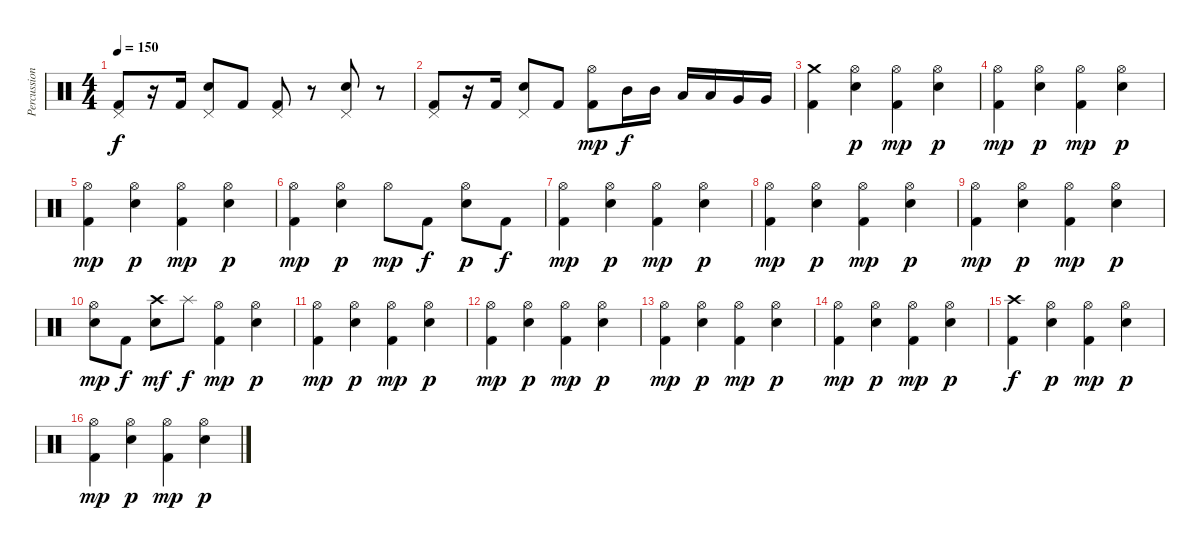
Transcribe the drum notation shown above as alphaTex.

\track ("Percussion" "Percussion") {instrument percussion}
\staff {score}
\articulation defaults
\ts (4 4)
\tempo 150
\clef neutral
\ks c
("Pedal Hi-Hat (hit)" "Kick (hit) 2").8{dy f} r.16 "Kick (hit) 2".16 ("Pedal Hi-Hat (hit)" "Snare (hit) 2").8 "Kick (hit) 2".8 ("Pedal Hi-Hat (hit)" "Kick (hit) 2").8 r.8 ("Pedal Hi-Hat (hit)" "Snare (hit) 2").8 r.8 |
("Pedal Hi-Hat (hit)" "Kick (hit) 2").8 r.16 "Kick (hit) 2".16 ("Pedal Hi-Hat (hit)" "Snare (hit) 2").8 "Kick (hit) 2".8 ("Hi-Hat (open)" "Kick (hit) 2").8{dy mp} "Mid Tom (hit)".16{dy f} "Mid Tom (hit)".16 "Low Tom (hit)".16 "Low Tom (hit)".16 "Very Low Tom (hit)".16 "Very Low Tom (hit)".16 |
("Crash medium (hit)" "Kick (hit) 2").4 ("Hi-Hat (open)" "Snare (hit) 2").4{dy p} ("Hi-Hat (open)" "Kick (hit) 2").4{dy mp} ("Hi-Hat (open)" "Snare (hit) 2").4{dy p} |
("Hi-Hat (open)" "Kick (hit) 2").4{dy mp} ("Hi-Hat (open)" "Snare (hit) 2").4{dy p} ("Hi-Hat (open)" "Kick (hit) 2").4{dy mp} ("Hi-Hat (open)" "Snare (hit) 2").4{dy p} |
("Hi-Hat (open)" "Kick (hit) 2").4{dy mp} ("Hi-Hat (open)" "Snare (hit) 2").4{dy p} ("Hi-Hat (open)" "Kick (hit) 2").4{dy mp} ("Hi-Hat (open)" "Snare (hit) 2").4{dy p} |
("Hi-Hat (open)" "Kick (hit) 2").4{dy mp} ("Hi-Hat (open)" "Snare (hit) 2").4{dy p} "Hi-Hat (open)".8{dy mp} "Kick (hit) 2".8{dy f} ("Hi-Hat (open)" "Snare (hit) 2").8{dy p} "Kick (hit) 2".8{dy f} |
("Hi-Hat (open)" "Kick (hit) 2").4{dy mp} ("Hi-Hat (open)" "Snare (hit) 2").4{dy p} ("Hi-Hat (open)" "Kick (hit) 2").4{dy mp} ("Hi-Hat (open)" "Snare (hit) 2").4{dy p} |
("Hi-Hat (open)" "Kick (hit) 2").4{dy mp} ("Hi-Hat (open)" "Snare (hit) 2").4{dy p} ("Hi-Hat (open)" "Kick (hit) 2").4{dy mp} ("Hi-Hat (open)" "Snare (hit) 2").4{dy p} |
("Hi-Hat (open)" "Kick (hit) 2").4{dy mp} ("Hi-Hat (open)" "Snare (hit) 2").4{dy p} ("Hi-Hat (open)" "Kick (hit) 2").4{dy mp} ("Hi-Hat (open)" "Snare (hit) 2").4{dy p} |
("Hi-Hat (open)" "Snare (hit) 2").8{dy mp} "Kick (hit) 2".8{dy f} ("Crash high (hit)" "Snare (hit) 2").8{dy mf} "Splash (hit)".8{dy f} ("Hi-Hat (open)" "Kick (hit) 2").4{dy mp} ("Hi-Hat (open)" "Snare (hit) 2").4{dy p} |
("Hi-Hat (open)" "Kick (hit) 2").4{dy mp} ("Hi-Hat (open)" "Snare (hit) 2").4{dy p} ("Hi-Hat (open)" "Kick (hit) 2").4{dy mp} ("Hi-Hat (open)" "Snare (hit) 2").4{dy p} |
("Hi-Hat (open)" "Kick (hit) 2").4{dy mp} ("Hi-Hat (open)" "Snare (hit) 2").4{dy p} ("Hi-Hat (open)" "Kick (hit) 2").4{dy mp} ("Hi-Hat (open)" "Snare (hit) 2").4{dy p} |
("Hi-Hat (open)" "Kick (hit) 2").4{dy mp} ("Hi-Hat (open)" "Snare (hit) 2").4{dy p} ("Hi-Hat (open)" "Kick (hit) 2").4{dy mp} ("Hi-Hat (open)" "Snare (hit) 2").4{dy p} |
("Hi-Hat (open)" "Kick (hit) 2").4{dy mp} ("Hi-Hat (open)" "Snare (hit) 2").4{dy p} ("Hi-Hat (open)" "Kick (hit) 2").4{dy mp} ("Hi-Hat (open)" "Snare (hit) 2").4{dy p} |
("Crash high (hit)" "Kick (hit) 2").4{dy f} ("Hi-Hat (open)" "Snare (hit) 2").4{dy p} ("Hi-Hat (open)" "Kick (hit) 2").4{dy mp} ("Hi-Hat (open)" "Snare (hit) 2").4{dy p} |
("Hi-Hat (open)" "Kick (hit) 2").4{dy mp} ("Hi-Hat (open)" "Snare (hit) 2").4{dy p} ("Hi-Hat (open)" "Kick (hit) 2").4{dy mp} ("Hi-Hat (open)" "Snare (hit) 2").4{dy p}
